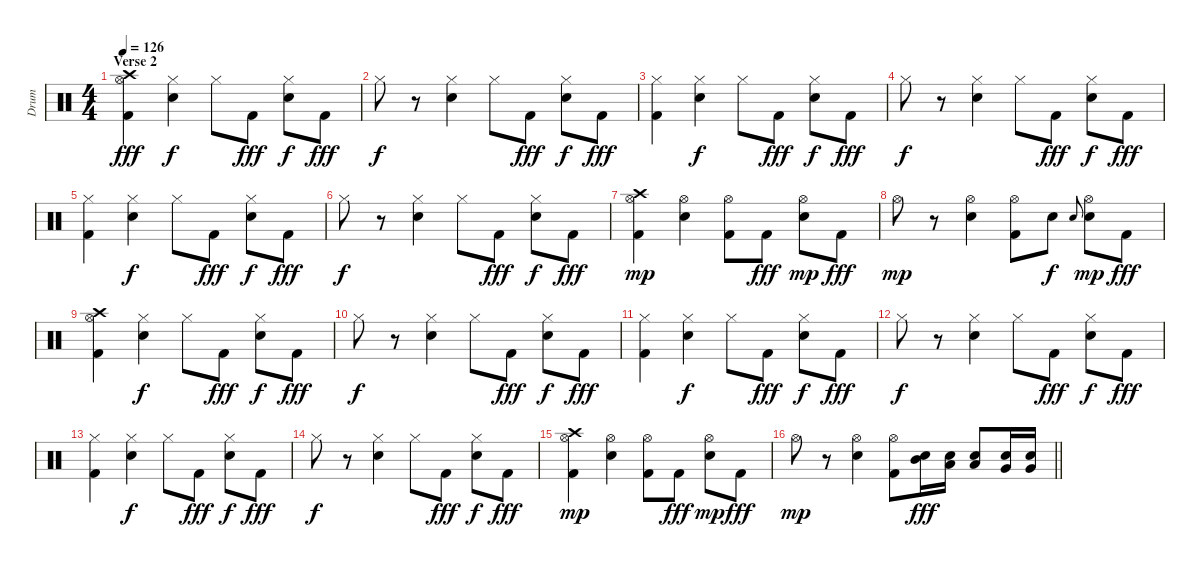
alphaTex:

\track ("Drum" "Drum") {instrument percussion}
\staff {score}
\articulation defaults
\ts (4 4)
\section ("" "Verse 2")
\tempo 126
\clef neutral
\ks c
("Kick (hit) 2" "Hi-Hat (open)" "Crash high (hit)").4{dy fff} ("Electric Snare (hit)" "Hi-Hat (closed)").4{dy f} "Hi-Hat (closed)".8 "Kick (hit) 2".8{dy fff} ("Electric Snare (hit)" "Hi-Hat (closed)").8{dy f} "Kick (hit) 2".8{dy fff} |
"Hi-Hat (closed)".8{dy f} r.8 ("Electric Snare (hit)" "Hi-Hat (closed)").4 "Hi-Hat (closed)".8 "Kick (hit) 2".8{dy fff} ("Electric Snare (hit)" "Hi-Hat (closed)").8{dy f} "Kick (hit) 2".8{dy fff} |
("Kick (hit) 2" "Hi-Hat (closed)").4 ("Electric Snare (hit)" "Hi-Hat (closed)").4{dy f} "Hi-Hat (closed)".8 "Kick (hit) 2".8{dy fff} ("Electric Snare (hit)" "Hi-Hat (closed)").8{dy f} "Kick (hit) 2".8{dy fff} |
"Hi-Hat (closed)".8{dy f} r.8 ("Electric Snare (hit)" "Hi-Hat (closed)").4 "Hi-Hat (closed)".8 "Kick (hit) 2".8{dy fff} ("Electric Snare (hit)" "Hi-Hat (closed)").8{dy f} "Kick (hit) 2".8{dy fff} |
("Kick (hit) 2" "Hi-Hat (closed)").4 ("Electric Snare (hit)" "Hi-Hat (closed)").4{dy f} "Hi-Hat (closed)".8 "Kick (hit) 2".8{dy fff} ("Electric Snare (hit)" "Hi-Hat (closed)").8{dy f} "Kick (hit) 2".8{dy fff} |
"Hi-Hat (closed)".8{dy f} r.8 ("Electric Snare (hit)" "Hi-Hat (closed)").4 "Hi-Hat (closed)".8 "Kick (hit) 2".8{dy fff} ("Electric Snare (hit)" "Hi-Hat (closed)").8{dy f} "Kick (hit) 2".8{dy fff} |
("Kick (hit) 2" "Hi-Hat (open)" "Crash high (hit)").4{dy mp} ("Electric Snare (hit)" "Hi-Hat (open)").4 ("Kick (hit) 2" "Hi-Hat (open)").8 "Kick (hit) 2".8{dy fff} ("Electric Snare (hit)" "Hi-Hat (open)").8{dy mp} "Kick (hit) 2".8{dy fff} |
"Hi-Hat (open)".8{dy mp} r.8 ("Electric Snare (hit)" "Hi-Hat (open)").4 ("Kick (hit) 2" "Hi-Hat (open)").8 "Electric Snare (hit)".8{dy f} "Electric Snare (hit)".8{gr onbeat} ("Electric Snare (hit)" "Hi-Hat (open)").8{dy mp} "Kick (hit) 2".8{dy fff} |
("Kick (hit) 2" "Hi-Hat (open)" "Crash high (hit)").4 ("Electric Snare (hit)" "Hi-Hat (closed)").4{dy f} "Hi-Hat (closed)".8 "Kick (hit) 2".8{dy fff} ("Electric Snare (hit)" "Hi-Hat (closed)").8{dy f} "Kick (hit) 2".8{dy fff} |
"Hi-Hat (closed)".8{dy f} r.8 ("Electric Snare (hit)" "Hi-Hat (closed)").4 "Hi-Hat (closed)".8 "Kick (hit) 2".8{dy fff} ("Electric Snare (hit)" "Hi-Hat (closed)").8{dy f} "Kick (hit) 2".8{dy fff} |
("Kick (hit) 2" "Hi-Hat (closed)").4 ("Electric Snare (hit)" "Hi-Hat (closed)").4{dy f} "Hi-Hat (closed)".8 "Kick (hit) 2".8{dy fff} ("Electric Snare (hit)" "Hi-Hat (closed)").8{dy f} "Kick (hit) 2".8{dy fff} |
"Hi-Hat (closed)".8{dy f} r.8 ("Electric Snare (hit)" "Hi-Hat (closed)").4 "Hi-Hat (closed)".8 "Kick (hit) 2".8{dy fff} ("Electric Snare (hit)" "Hi-Hat (closed)").8{dy f} "Kick (hit) 2".8{dy fff} |
("Kick (hit) 2" "Hi-Hat (closed)").4 ("Electric Snare (hit)" "Hi-Hat (closed)").4{dy f} "Hi-Hat (closed)".8 "Kick (hit) 2".8{dy fff} ("Electric Snare (hit)" "Hi-Hat (closed)").8{dy f} "Kick (hit) 2".8{dy fff} |
"Hi-Hat (closed)".8{dy f} r.8 ("Electric Snare (hit)" "Hi-Hat (closed)").4 "Hi-Hat (closed)".8 "Kick (hit) 2".8{dy fff} ("Electric Snare (hit)" "Hi-Hat (closed)").8{dy f} "Kick (hit) 2".8{dy fff} |
("Kick (hit) 2" "Hi-Hat (open)" "Crash high (hit)").4{dy mp} ("Electric Snare (hit)" "Hi-Hat (open)").4 ("Kick (hit) 2" "Hi-Hat (open)").8 "Kick (hit) 2".8{dy fff} ("Electric Snare (hit)" "Hi-Hat (open)").8{dy mp} "Kick (hit) 2".8{dy fff} |
\barLineRight lightlight "Hi-Hat (open)".8{dy mp}
r.8 ("Electric Snare (hit)" "Hi-Hat (open)").4 ("Kick (hit) 2" "Hi-Hat (open)").8 ("Electric Snare (hit)" "Mid Tom (hit)").16{dy fff} ("Electric Snare (hit)" "Low Tom (hit)").16 ("Electric Snare (hit)" "Low Tom (hit)").8 ("Electric Snare (hit)" "Very Low Tom (hit)").16 ("Electric Snare (hit)" "Very Low Tom (hit)").16
